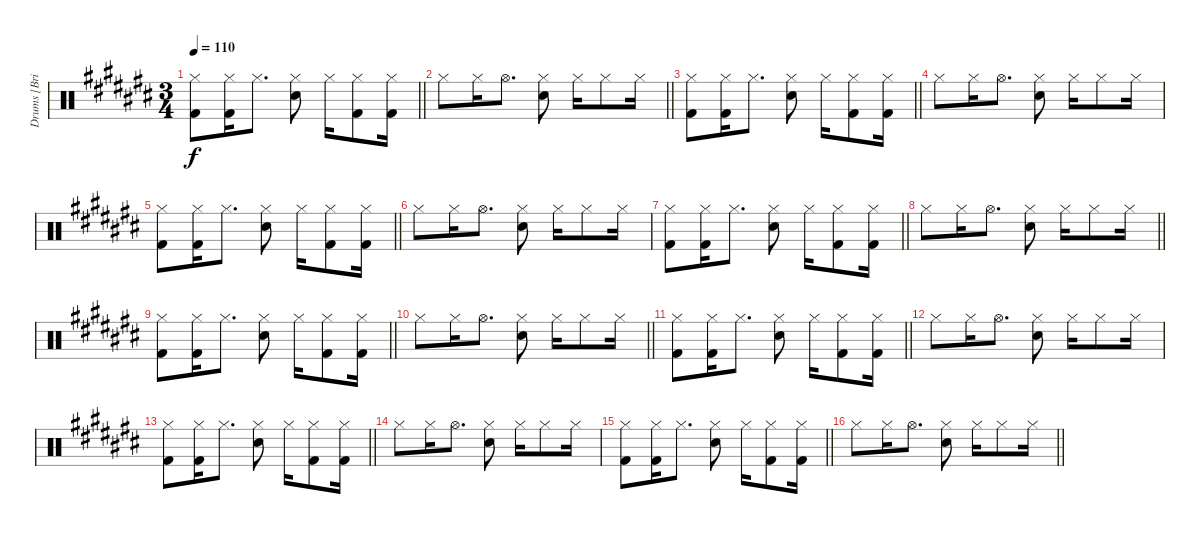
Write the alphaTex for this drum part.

\track ("Drums [Brian \"Brain\" Mantia]" "Drums [Bri") {instrument percussion}
\staff {score}
\articulation defaults
\ts (3 4)
\tempo 110
\clef neutral
\barLineRight lightlight
\ks c#
("Hi-Hat (closed)" "Kick (hit) 2").8{dy f} ("Hi-Hat (closed)" "Kick (hit) 2").16 "Hi-Hat (closed)".8{d} ("Hi-Hat (closed)" "Electric Snare (hit)").8 "Hi-Hat (closed)".16 ("Hi-Hat (closed)" "Kick (hit) 2").8 ("Hi-Hat (closed)" "Kick (hit) 2").16 |
\barLineRight lightlight "Hi-Hat (closed)".8 "Hi-Hat (closed)".16 "Hi-Hat (open)".8{d}
("Hi-Hat (closed)" "Electric Snare (hit)").8 "Hi-Hat (closed)".16 "Hi-Hat (closed)".8 "Hi-Hat (closed)".16 |
\section ("" "")
\barLineRight lightlight
("Hi-Hat (closed)" "Kick (hit) 2").8 ("Hi-Hat (closed)" "Kick (hit) 2").16 "Hi-Hat (closed)".8{d} ("Hi-Hat (closed)" "Electric Snare (hit)").8 "Hi-Hat (closed)".16 ("Hi-Hat (closed)" "Kick (hit) 2").8 ("Hi-Hat (closed)" "Kick (hit) 2").16 |
"Hi-Hat (closed)".8 "Hi-Hat (closed)".16 "Hi-Hat (open)".8{d} ("Hi-Hat (closed)" "Electric Snare (hit)").8 "Hi-Hat (closed)".16 "Hi-Hat (closed)".8 "Hi-Hat (closed)".16 |
\barLineRight lightlight
("Hi-Hat (closed)" "Kick (hit) 2").8 ("Hi-Hat (closed)" "Kick (hit) 2").16 "Hi-Hat (closed)".8{d} ("Hi-Hat (closed)" "Electric Snare (hit)").8 "Hi-Hat (closed)".16 ("Hi-Hat (closed)" "Kick (hit) 2").8 ("Hi-Hat (closed)" "Kick (hit) 2").16 |
"Hi-Hat (closed)".8 "Hi-Hat (closed)".16 "Hi-Hat (open)".8{d} ("Hi-Hat (closed)" "Electric Snare (hit)").8 "Hi-Hat (closed)".16 "Hi-Hat (closed)".8 "Hi-Hat (closed)".16 |
\barLineRight lightlight
("Hi-Hat (closed)" "Kick (hit) 2").8 ("Hi-Hat (closed)" "Kick (hit) 2").16 "Hi-Hat (closed)".8{d} ("Hi-Hat (closed)" "Electric Snare (hit)").8 "Hi-Hat (closed)".16 ("Hi-Hat (closed)" "Kick (hit) 2").8 ("Hi-Hat (closed)" "Kick (hit) 2").16 |
\barLineRight lightlight "Hi-Hat (closed)".8 "Hi-Hat (closed)".16 "Hi-Hat (open)".8{d}
("Hi-Hat (closed)" "Electric Snare (hit)").8 "Hi-Hat (closed)".16 "Hi-Hat (closed)".8 "Hi-Hat (closed)".16 |
\barLineRight lightlight
("Hi-Hat (closed)" "Kick (hit) 2").8 ("Hi-Hat (closed)" "Kick (hit) 2").16 "Hi-Hat (closed)".8{d} ("Hi-Hat (closed)" "Electric Snare (hit)").8 "Hi-Hat (closed)".16 ("Hi-Hat (closed)" "Kick (hit) 2").8 ("Hi-Hat (closed)" "Kick (hit) 2").16 |
\barLineRight lightlight "Hi-Hat (closed)".8 "Hi-Hat (closed)".16 "Hi-Hat (open)".8{d}
("Hi-Hat (closed)" "Electric Snare (hit)").8 "Hi-Hat (closed)".16 "Hi-Hat (closed)".8 "Hi-Hat (closed)".16 |
\section ("" "")
\barLineRight lightlight
("Hi-Hat (closed)" "Kick (hit) 2").8 ("Hi-Hat (closed)" "Kick (hit) 2").16 "Hi-Hat (closed)".8{d} ("Hi-Hat (closed)" "Electric Snare (hit)").8 "Hi-Hat (closed)".16 ("Hi-Hat (closed)" "Kick (hit) 2").8 ("Hi-Hat (closed)" "Kick (hit) 2").16 |
"Hi-Hat (closed)".8 "Hi-Hat (closed)".16 "Hi-Hat (open)".8{d} ("Hi-Hat (closed)" "Electric Snare (hit)").8 "Hi-Hat (closed)".16 "Hi-Hat (closed)".8 "Hi-Hat (closed)".16 |
\barLineRight lightlight
("Hi-Hat (closed)" "Kick (hit) 2").8 ("Hi-Hat (closed)" "Kick (hit) 2").16 "Hi-Hat (closed)".8{d} ("Hi-Hat (closed)" "Electric Snare (hit)").8 "Hi-Hat (closed)".16 ("Hi-Hat (closed)" "Kick (hit) 2").8 ("Hi-Hat (closed)" "Kick (hit) 2").16 |
"Hi-Hat (closed)".8 "Hi-Hat (closed)".16 "Hi-Hat (open)".8{d} ("Hi-Hat (closed)" "Electric Snare (hit)").8 "Hi-Hat (closed)".16 "Hi-Hat (closed)".8 "Hi-Hat (closed)".16 |
\barLineRight lightlight
("Hi-Hat (closed)" "Kick (hit) 2").8 ("Hi-Hat (closed)" "Kick (hit) 2").16 "Hi-Hat (closed)".8{d} ("Hi-Hat (closed)" "Electric Snare (hit)").8 "Hi-Hat (closed)".16 ("Hi-Hat (closed)" "Kick (hit) 2").8 ("Hi-Hat (closed)" "Kick (hit) 2").16 |
\barLineRight lightlight "Hi-Hat (closed)".8 "Hi-Hat (closed)".16 "Hi-Hat (open)".8{d}
("Hi-Hat (closed)" "Electric Snare (hit)").8 "Hi-Hat (closed)".16 "Hi-Hat (closed)".8 "Hi-Hat (closed)".16
